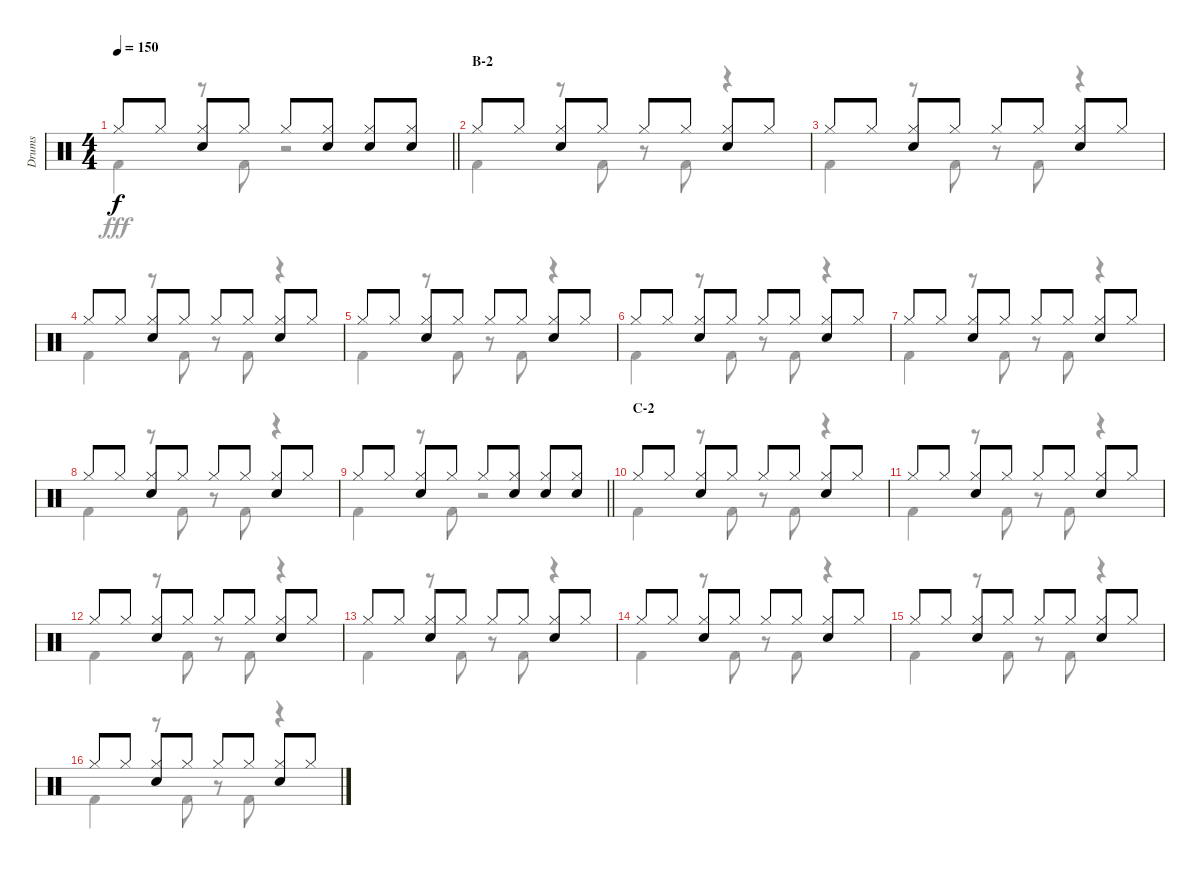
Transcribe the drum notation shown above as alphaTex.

\track ("Drums" "Drums") {instrument percussion}
\staff {score}
\articulation defaults
\voice
\ts (4 4)
\tempo 150
\clef neutral
\barLineRight lightlight
\ks c "Hi-Hat (closed)".8{dy f} "Hi-Hat (closed)".8
("Hi-Hat (closed)" "Electric Snare (hit)").8 "Hi-Hat (closed)".8 "Hi-Hat (closed)".8 ("Hi-Hat (closed)" "Electric Snare (hit)").8 ("Hi-Hat (closed)" "Electric Snare (hit)").8 ("Hi-Hat (closed)" "Electric Snare (hit)").8 |
\section ("" "B-2")
"Hi-Hat (closed)".8 "Hi-Hat (closed)".8 ("Hi-Hat (closed)" "Electric Snare (hit)").8 "Hi-Hat (closed)".8 "Hi-Hat (closed)".8 "Hi-Hat (closed)".8 ("Hi-Hat (closed)" "Electric Snare (hit)").8 "Hi-Hat (closed)".8 |
"Hi-Hat (closed)".8 "Hi-Hat (closed)".8 ("Hi-Hat (closed)" "Electric Snare (hit)").8 "Hi-Hat (closed)".8 "Hi-Hat (closed)".8 "Hi-Hat (closed)".8 ("Hi-Hat (closed)" "Electric Snare (hit)").8 "Hi-Hat (closed)".8 |
"Hi-Hat (closed)".8 "Hi-Hat (closed)".8 ("Hi-Hat (closed)" "Electric Snare (hit)").8 "Hi-Hat (closed)".8 "Hi-Hat (closed)".8 "Hi-Hat (closed)".8 ("Hi-Hat (closed)" "Electric Snare (hit)").8 "Hi-Hat (closed)".8 |
"Hi-Hat (closed)".8 "Hi-Hat (closed)".8 ("Hi-Hat (closed)" "Electric Snare (hit)").8 "Hi-Hat (closed)".8 "Hi-Hat (closed)".8 "Hi-Hat (closed)".8 ("Hi-Hat (closed)" "Electric Snare (hit)").8 "Hi-Hat (closed)".8 |
"Hi-Hat (closed)".8 "Hi-Hat (closed)".8 ("Hi-Hat (closed)" "Electric Snare (hit)").8 "Hi-Hat (closed)".8 "Hi-Hat (closed)".8 "Hi-Hat (closed)".8 ("Hi-Hat (closed)" "Electric Snare (hit)").8 "Hi-Hat (closed)".8 |
"Hi-Hat (closed)".8 "Hi-Hat (closed)".8 ("Hi-Hat (closed)" "Electric Snare (hit)").8 "Hi-Hat (closed)".8 "Hi-Hat (closed)".8 "Hi-Hat (closed)".8 ("Hi-Hat (closed)" "Electric Snare (hit)").8 "Hi-Hat (closed)".8 |
"Hi-Hat (closed)".8 "Hi-Hat (closed)".8 ("Hi-Hat (closed)" "Electric Snare (hit)").8 "Hi-Hat (closed)".8 "Hi-Hat (closed)".8 "Hi-Hat (closed)".8 ("Hi-Hat (closed)" "Electric Snare (hit)").8 "Hi-Hat (closed)".8 |
\barLineRight lightlight "Hi-Hat (closed)".8 "Hi-Hat (closed)".8
("Hi-Hat (closed)" "Electric Snare (hit)").8 "Hi-Hat (closed)".8 "Hi-Hat (closed)".8 ("Hi-Hat (closed)" "Electric Snare (hit)").8 ("Hi-Hat (closed)" "Electric Snare (hit)").8 ("Hi-Hat (closed)" "Electric Snare (hit)").8 |
\section ("" "C-2")
"Hi-Hat (closed)".8 "Hi-Hat (closed)".8 ("Hi-Hat (closed)" "Electric Snare (hit)").8 "Hi-Hat (closed)".8 "Hi-Hat (closed)".8 "Hi-Hat (closed)".8 ("Hi-Hat (closed)" "Electric Snare (hit)").8 "Hi-Hat (closed)".8 |
"Hi-Hat (closed)".8 "Hi-Hat (closed)".8 ("Hi-Hat (closed)" "Electric Snare (hit)").8 "Hi-Hat (closed)".8 "Hi-Hat (closed)".8 "Hi-Hat (closed)".8 ("Hi-Hat (closed)" "Electric Snare (hit)").8 "Hi-Hat (closed)".8 |
"Hi-Hat (closed)".8 "Hi-Hat (closed)".8 ("Hi-Hat (closed)" "Electric Snare (hit)").8 "Hi-Hat (closed)".8 "Hi-Hat (closed)".8 "Hi-Hat (closed)".8 ("Hi-Hat (closed)" "Electric Snare (hit)").8 "Hi-Hat (closed)".8 |
"Hi-Hat (closed)".8 "Hi-Hat (closed)".8 ("Hi-Hat (closed)" "Electric Snare (hit)").8 "Hi-Hat (closed)".8 "Hi-Hat (closed)".8 "Hi-Hat (closed)".8 ("Hi-Hat (closed)" "Electric Snare (hit)").8 "Hi-Hat (closed)".8 |
"Hi-Hat (closed)".8 "Hi-Hat (closed)".8 ("Hi-Hat (closed)" "Electric Snare (hit)").8 "Hi-Hat (closed)".8 "Hi-Hat (closed)".8 "Hi-Hat (closed)".8 ("Hi-Hat (closed)" "Electric Snare (hit)").8 "Hi-Hat (closed)".8 |
"Hi-Hat (closed)".8 "Hi-Hat (closed)".8 ("Hi-Hat (closed)" "Electric Snare (hit)").8 "Hi-Hat (closed)".8 "Hi-Hat (closed)".8 "Hi-Hat (closed)".8 ("Hi-Hat (closed)" "Electric Snare (hit)").8 "Hi-Hat (closed)".8 |
"Hi-Hat (closed)".8 "Hi-Hat (closed)".8 ("Hi-Hat (closed)" "Electric Snare (hit)").8 "Hi-Hat (closed)".8 "Hi-Hat (closed)".8 "Hi-Hat (closed)".8 ("Hi-Hat (closed)" "Electric Snare (hit)").8 "Hi-Hat (closed)".8
\voice
\clef neutral
\ottava regular
\simile none
\barLineRight lightlight
\ks c "Kick (hit) 2".4{dy fff}
r.8 "Kick (hit) 2".8 r.2 |
"Kick (hit) 2".4 r.8 "Kick (hit) 2".8 r.8 "Kick (hit) 2".8 r.4 |
"Kick (hit) 2".4 r.8 "Kick (hit) 2".8 r.8 "Kick (hit) 2".8 r.4 |
"Kick (hit) 2".4 r.8 "Kick (hit) 2".8 r.8 "Kick (hit) 2".8 r.4 |
"Kick (hit) 2".4 r.8 "Kick (hit) 2".8 r.8 "Kick (hit) 2".8 r.4 |
"Kick (hit) 2".4 r.8 "Kick (hit) 2".8 r.8 "Kick (hit) 2".8 r.4 |
"Kick (hit) 2".4 r.8 "Kick (hit) 2".8 r.8 "Kick (hit) 2".8 r.4 |
"Kick (hit) 2".4 r.8 "Kick (hit) 2".8 r.8 "Kick (hit) 2".8 r.4 |
\barLineRight lightlight "Kick (hit) 2".4
r.8 "Kick (hit) 2".8 r.2 |
"Kick (hit) 2".4 r.8 "Kick (hit) 2".8 r.8 "Kick (hit) 2".8 r.4 |
"Kick (hit) 2".4 r.8 "Kick (hit) 2".8 r.8 "Kick (hit) 2".8 r.4 |
"Kick (hit) 2".4 r.8 "Kick (hit) 2".8 r.8 "Kick (hit) 2".8 r.4 |
"Kick (hit) 2".4 r.8 "Kick (hit) 2".8 r.8 "Kick (hit) 2".8 r.4 |
"Kick (hit) 2".4 r.8 "Kick (hit) 2".8 r.8 "Kick (hit) 2".8 r.4 |
"Kick (hit) 2".4 r.8 "Kick (hit) 2".8 r.8 "Kick (hit) 2".8 r.4 |
"Kick (hit) 2".4 r.8 "Kick (hit) 2".8 r.8 "Kick (hit) 2".8 r.4
